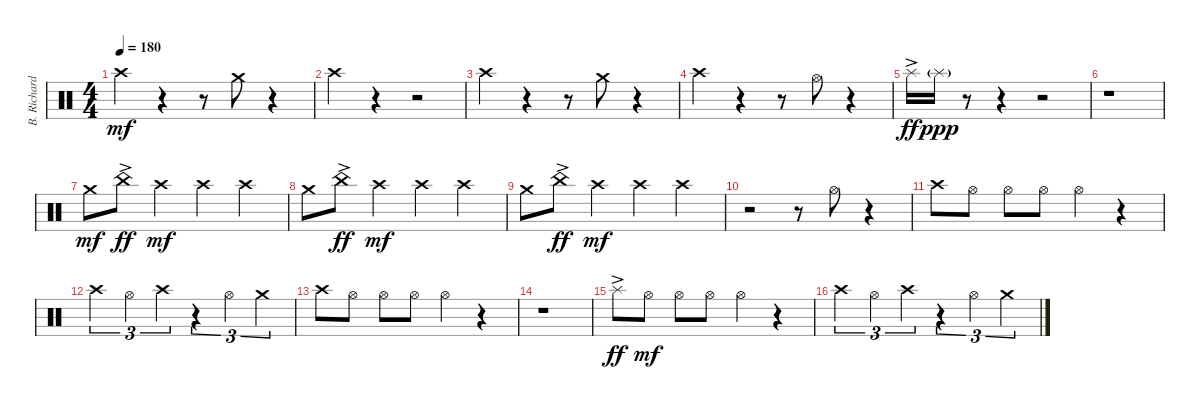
\track ("B. Richardson Drums" "B. Richard") {instrument percussion}
\staff {score}
\articulation defaults
\ts (4 4)
\tempo 180
\clef neutral
\ks c "Crash high (hit)".4{dy mf}
r.4 r.8 "Crash medium (hit)".8 r.4 |
"Crash high (hit)".4 r.4 r.2 |
"Crash high (hit)".4 r.4 r.8 "Crash medium (hit)".8 r.4 |
"Crash high (hit)".4 r.4 r.8 "Hi-Hat (open)".8 r.4 |
"Splash (hit)"{ac}.16{dy ff} "Splash (hit)"{g}.16{dy ppp} r.8 r.4 r.2 |
r.1 |
"Crash medium (hit)".8{dy mf} "China (hit)"{ac}.8{dy ff} "Crash high (hit)".4{dy mf} "Crash high (hit)".4 "Crash high (hit)".4 |
"Crash medium (hit)".8 "China (hit)"{ac}.8{dy ff} "Crash high (hit)".4{dy mf} "Crash high (hit)".4 "Crash high (hit)".4 |
"Crash medium (hit)".8 "China (hit)"{ac}.8{dy ff} "Crash high (hit)".4{dy mf} "Crash high (hit)".4 "Crash high (hit)".4 |
r.2 r.8 "Hi-Hat (open)".8 r.4 |
"Crash high (hit)".8 "Hi-Hat (open)".8 "Hi-Hat (open)".8 "Hi-Hat (open)".8 "Hi-Hat (open)".4 r.4 |
"Crash high (hit)".4{tu (3 2)} "Hi-Hat (open)".4{tu (3 2)} "Crash high (hit)".4{tu (3 2)} r.4{tu (3 2)} "Hi-Hat (open)".4{tu (3 2)} "Crash medium (hit)".4{tu (3 2)} |
"Crash high (hit)".8 "Hi-Hat (open)".8 "Hi-Hat (open)".8 "Hi-Hat (open)".8 "Hi-Hat (open)".4 r.4 |
r.1 |
"Splash (hit)"{ac}.8{dy ff} "Hi-Hat (open)".8{dy mf} "Hi-Hat (open)".8 "Hi-Hat (open)".8 "Hi-Hat (open)".4 r.4 |
"Crash high (hit)".4{tu (3 2)} "Hi-Hat (open)".4{tu (3 2)} "Crash high (hit)".4{tu (3 2)} r.4{tu (3 2)} "Hi-Hat (open)".4{tu (3 2)} "Crash medium (hit)".4{tu (3 2)}
